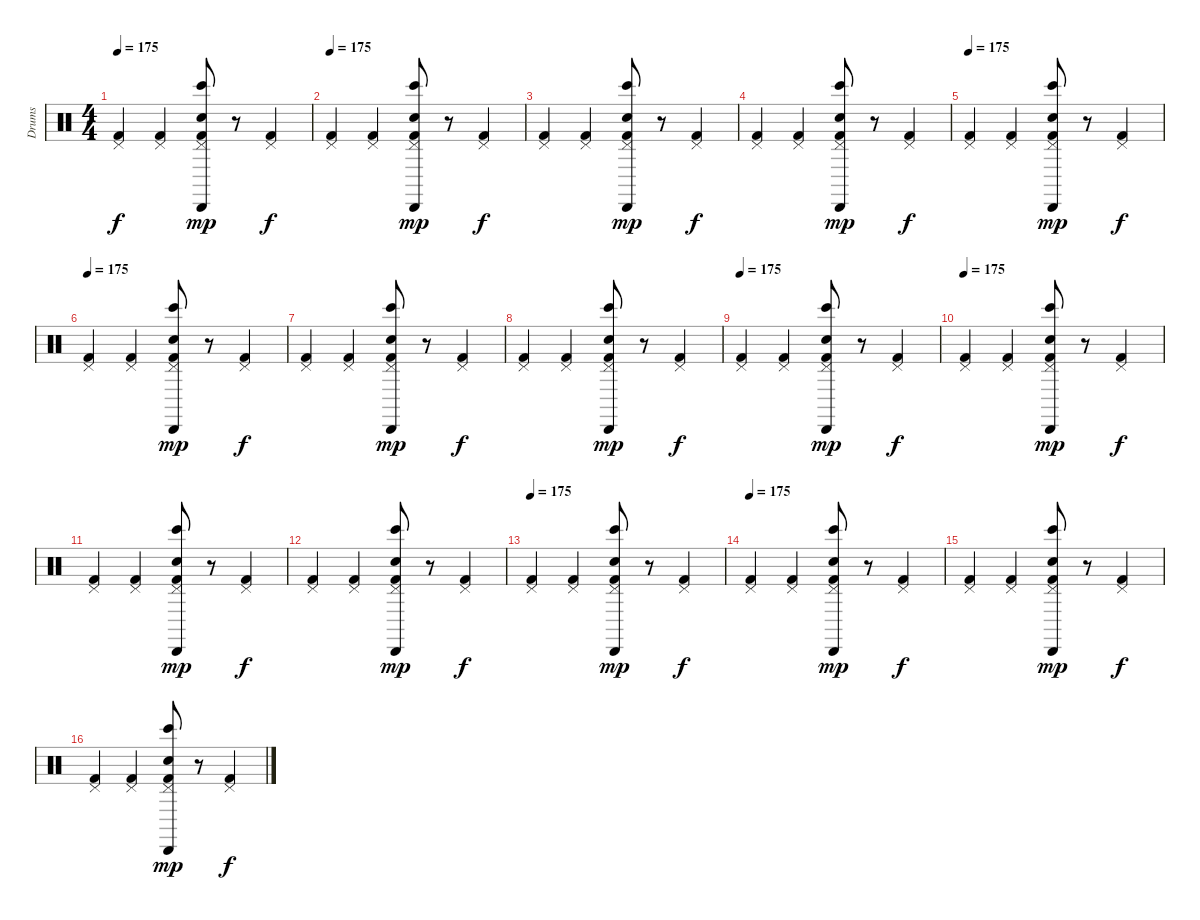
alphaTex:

\track ("Drums" "Drums") {instrument percussion}
\staff {score}
\articulation defaults
\ts (4 4)
\tempo 175
\clef neutral
\ks c
("Pedal Hi-Hat (hit)" "Kick (hit) 2").4{dy f} ("Pedal Hi-Hat (hit)" "Kick (hit) 2").4 ("Cabasa (hit)" "Bongo High (hit)" "Pedal Hi-Hat (hit)" "Snare (hit) 2" "Kick (hit) 2").8{dy mp} r.8{volume 0} ("Pedal Hi-Hat (hit)" "Kick (hit) 2").4{dy f volume 14} |
\tempo 175
("Pedal Hi-Hat (hit)" "Kick (hit) 2").4 ("Pedal Hi-Hat (hit)" "Kick (hit) 2").4 ("Cabasa (hit)" "Bongo High (hit)" "Pedal Hi-Hat (hit)" "Snare (hit) 2" "Kick (hit) 2").8{dy mp} r.8{volume 0} ("Pedal Hi-Hat (hit)" "Kick (hit) 2").4{dy f volume 14} |
("Pedal Hi-Hat (hit)" "Kick (hit) 2").4 ("Pedal Hi-Hat (hit)" "Kick (hit) 2").4 ("Cabasa (hit)" "Bongo High (hit)" "Pedal Hi-Hat (hit)" "Snare (hit) 2" "Kick (hit) 2").8{dy mp} r.8{volume 0} ("Pedal Hi-Hat (hit)" "Kick (hit) 2").4{dy f volume 14} |
("Pedal Hi-Hat (hit)" "Kick (hit) 2").4 ("Pedal Hi-Hat (hit)" "Kick (hit) 2").4 ("Cabasa (hit)" "Bongo High (hit)" "Pedal Hi-Hat (hit)" "Snare (hit) 2" "Kick (hit) 2").8{dy mp} r.8{volume 0} ("Pedal Hi-Hat (hit)" "Kick (hit) 2").4{dy f volume 14} |
\tempo 175
("Pedal Hi-Hat (hit)" "Kick (hit) 2").4 ("Pedal Hi-Hat (hit)" "Kick (hit) 2").4 ("Cabasa (hit)" "Bongo High (hit)" "Pedal Hi-Hat (hit)" "Snare (hit) 2" "Kick (hit) 2").8{dy mp} r.8{volume 0} ("Pedal Hi-Hat (hit)" "Kick (hit) 2").4{dy f volume 14} |
\tempo 175
("Pedal Hi-Hat (hit)" "Kick (hit) 2").4 ("Pedal Hi-Hat (hit)" "Kick (hit) 2").4 ("Cabasa (hit)" "Bongo High (hit)" "Pedal Hi-Hat (hit)" "Snare (hit) 2" "Kick (hit) 2").8{dy mp} r.8{volume 0} ("Pedal Hi-Hat (hit)" "Kick (hit) 2").4{dy f volume 14} |
("Pedal Hi-Hat (hit)" "Kick (hit) 2").4 ("Pedal Hi-Hat (hit)" "Kick (hit) 2").4 ("Cabasa (hit)" "Bongo High (hit)" "Pedal Hi-Hat (hit)" "Snare (hit) 2" "Kick (hit) 2").8{dy mp} r.8{volume 0} ("Pedal Hi-Hat (hit)" "Kick (hit) 2").4{dy f volume 14} |
("Pedal Hi-Hat (hit)" "Kick (hit) 2").4 ("Pedal Hi-Hat (hit)" "Kick (hit) 2").4 ("Cabasa (hit)" "Bongo High (hit)" "Pedal Hi-Hat (hit)" "Snare (hit) 2" "Kick (hit) 2").8{dy mp} r.8{volume 0} ("Pedal Hi-Hat (hit)" "Kick (hit) 2").4{dy f volume 14} |
\tempo 175
("Pedal Hi-Hat (hit)" "Kick (hit) 2").4 ("Pedal Hi-Hat (hit)" "Kick (hit) 2").4 ("Cabasa (hit)" "Bongo High (hit)" "Pedal Hi-Hat (hit)" "Snare (hit) 2" "Kick (hit) 2").8{dy mp} r.8{volume 0} ("Pedal Hi-Hat (hit)" "Kick (hit) 2").4{dy f volume 14} |
\tempo 175
("Pedal Hi-Hat (hit)" "Kick (hit) 2").4 ("Pedal Hi-Hat (hit)" "Kick (hit) 2").4 ("Cabasa (hit)" "Bongo High (hit)" "Pedal Hi-Hat (hit)" "Snare (hit) 2" "Kick (hit) 2").8{dy mp} r.8{volume 0} ("Pedal Hi-Hat (hit)" "Kick (hit) 2").4{dy f volume 14} |
("Pedal Hi-Hat (hit)" "Kick (hit) 2").4 ("Pedal Hi-Hat (hit)" "Kick (hit) 2").4 ("Cabasa (hit)" "Bongo High (hit)" "Pedal Hi-Hat (hit)" "Snare (hit) 2" "Kick (hit) 2").8{dy mp} r.8{volume 0} ("Pedal Hi-Hat (hit)" "Kick (hit) 2").4{dy f volume 14} |
("Pedal Hi-Hat (hit)" "Kick (hit) 2").4 ("Pedal Hi-Hat (hit)" "Kick (hit) 2").4 ("Cabasa (hit)" "Bongo High (hit)" "Pedal Hi-Hat (hit)" "Snare (hit) 2" "Kick (hit) 2").8{dy mp} r.8{volume 0} ("Pedal Hi-Hat (hit)" "Kick (hit) 2").4{dy f volume 14} |
\tempo 175
("Pedal Hi-Hat (hit)" "Kick (hit) 2").4 ("Pedal Hi-Hat (hit)" "Kick (hit) 2").4 ("Cabasa (hit)" "Bongo High (hit)" "Pedal Hi-Hat (hit)" "Snare (hit) 2" "Kick (hit) 2").8{dy mp} r.8{volume 0} ("Pedal Hi-Hat (hit)" "Kick (hit) 2").4{dy f volume 14} |
\tempo 175
("Pedal Hi-Hat (hit)" "Kick (hit) 2").4 ("Pedal Hi-Hat (hit)" "Kick (hit) 2").4 ("Cabasa (hit)" "Bongo High (hit)" "Pedal Hi-Hat (hit)" "Snare (hit) 2" "Kick (hit) 2").8{dy mp} r.8{volume 0} ("Pedal Hi-Hat (hit)" "Kick (hit) 2").4{dy f volume 14} |
("Pedal Hi-Hat (hit)" "Kick (hit) 2").4 ("Pedal Hi-Hat (hit)" "Kick (hit) 2").4 ("Cabasa (hit)" "Bongo High (hit)" "Pedal Hi-Hat (hit)" "Snare (hit) 2" "Kick (hit) 2").8{dy mp} r.8{volume 0} ("Pedal Hi-Hat (hit)" "Kick (hit) 2").4{dy f volume 14} |
("Pedal Hi-Hat (hit)" "Kick (hit) 2").4 ("Pedal Hi-Hat (hit)" "Kick (hit) 2").4 ("Cabasa (hit)" "Bongo High (hit)" "Pedal Hi-Hat (hit)" "Snare (hit) 2" "Kick (hit) 2").8{dy mp} r.8{volume 0} ("Pedal Hi-Hat (hit)" "Kick (hit) 2").4{dy f volume 14}
